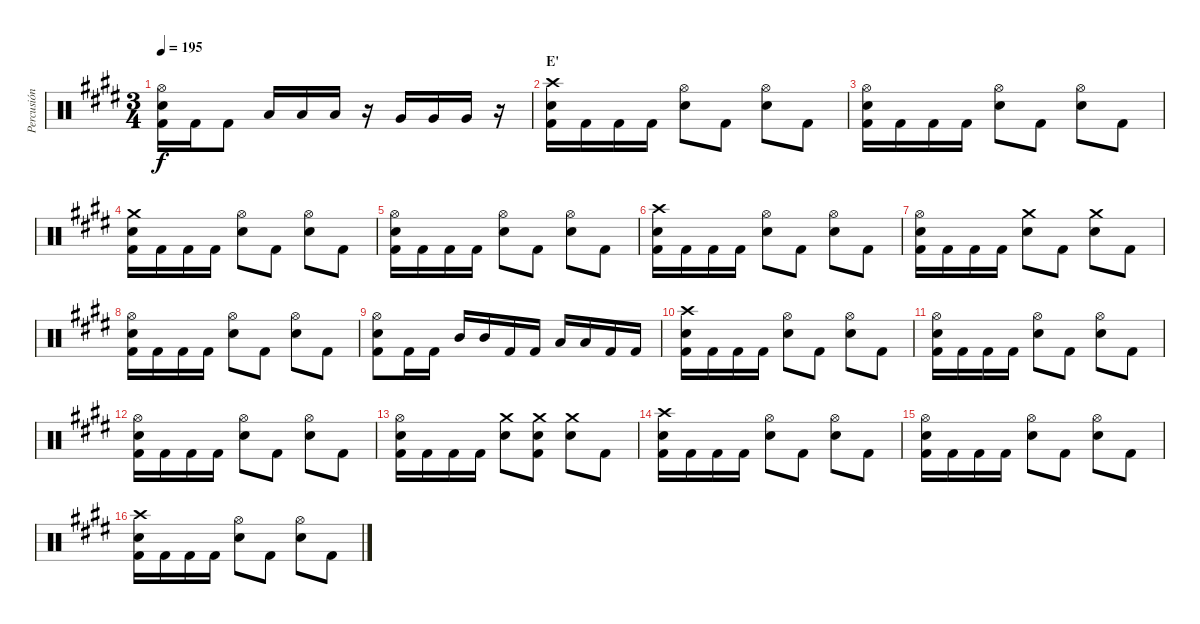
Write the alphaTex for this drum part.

\track ("Percusión" "Percusión") {instrument percussion}
\staff {score}
\articulation defaults
\ts (3 4)
\tempo 195
\clef neutral
\ks e
("Hi-Hat (open)" "Electric Snare (hit)" "Kick (hit) 2").16{dy f} "Kick (hit) 2".16 "Kick (hit) 2".8 "Low Tom (hit)".16 "Low Tom (hit)".16 "Low Tom (hit)".16 r.16 "Very Low Tom (hit)".16 "Very Low Tom (hit)".16 "Very Low Tom (hit)".16 r.16 |
\section ("" "E'")
("Crash high (hit)" "Electric Snare (hit)" "Kick (hit) 2").16 "Kick (hit) 2".16 "Kick (hit) 2".16 "Kick (hit) 2".16 ("Hi-Hat (open)" "Electric Snare (hit)").8 "Kick (hit) 2".8 ("Hi-Hat (open)" "Electric Snare (hit)").8 "Kick (hit) 2".8 |
("Hi-Hat (open)" "Electric Snare (hit)" "Kick (hit) 2").16 "Kick (hit) 2".16 "Kick (hit) 2".16 "Kick (hit) 2".16 ("Hi-Hat (open)" "Electric Snare (hit)").8 "Kick (hit) 2".8 ("Hi-Hat (open)" "Electric Snare (hit)").8 "Kick (hit) 2".8 |
("Crash medium (hit)" "Electric Snare (hit)" "Kick (hit) 2").16 "Kick (hit) 2".16 "Kick (hit) 2".16 "Kick (hit) 2".16 ("Hi-Hat (open)" "Electric Snare (hit)").8 "Kick (hit) 2".8 ("Hi-Hat (open)" "Electric Snare (hit)").8 "Kick (hit) 2".8 |
("Hi-Hat (open)" "Electric Snare (hit)" "Kick (hit) 2").16 "Kick (hit) 2".16 "Kick (hit) 2".16 "Kick (hit) 2".16 ("Hi-Hat (open)" "Electric Snare (hit)").8 "Kick (hit) 2".8 ("Hi-Hat (open)" "Electric Snare (hit)").8 "Kick (hit) 2".8 |
("Crash high (hit)" "Electric Snare (hit)" "Kick (hit) 2").16 "Kick (hit) 2".16 "Kick (hit) 2".16 "Kick (hit) 2".16 ("Hi-Hat (open)" "Electric Snare (hit)").8 "Kick (hit) 2".8 ("Hi-Hat (open)" "Electric Snare (hit)").8 "Kick (hit) 2".8 |
("Hi-Hat (open)" "Electric Snare (hit)" "Kick (hit) 2").16 "Kick (hit) 2".16 "Kick (hit) 2".16 "Kick (hit) 2".16 ("Crash medium (hit)" "Electric Snare (hit)").8 "Kick (hit) 2".8 ("Crash medium (hit)" "Electric Snare (hit)").8 "Kick (hit) 2".8 |
("Hi-Hat (open)" "Electric Snare (hit)" "Kick (hit) 2").16 "Kick (hit) 2".16 "Kick (hit) 2".16 "Kick (hit) 2".16 ("Hi-Hat (open)" "Electric Snare (hit)").8 "Kick (hit) 2".8 ("Hi-Hat (open)" "Electric Snare (hit)").8 "Kick (hit) 2".8 |
("Hi-Hat (open)" "Electric Snare (hit)" "Kick (hit) 2").8 "Kick (hit) 2".16 "Kick (hit) 2".16 "Mid Tom (hit)".16 "Mid Tom (hit)".16 "Kick (hit) 2".16 "Kick (hit) 2".16 "Low Tom (hit)".16 "Low Tom (hit)".16 "Kick (hit) 2".16 "Kick (hit) 2".16 |
("Crash high (hit)" "Electric Snare (hit)" "Kick (hit) 2").16 "Kick (hit) 2".16 "Kick (hit) 2".16 "Kick (hit) 2".16 ("Hi-Hat (open)" "Electric Snare (hit)").8 "Kick (hit) 2".8 ("Hi-Hat (open)" "Electric Snare (hit)").8 "Kick (hit) 2".8 |
("Hi-Hat (open)" "Electric Snare (hit)" "Kick (hit) 2").16 "Kick (hit) 2".16 "Kick (hit) 2".16 "Kick (hit) 2".16 ("Hi-Hat (open)" "Electric Snare (hit)").8 "Kick (hit) 2".8 ("Hi-Hat (open)" "Electric Snare (hit)").8 "Kick (hit) 2".8 |
("Hi-Hat (open)" "Electric Snare (hit)" "Kick (hit) 2").16 "Kick (hit) 2".16 "Kick (hit) 2".16 "Kick (hit) 2".16 ("Hi-Hat (open)" "Electric Snare (hit)").8 "Kick (hit) 2".8 ("Hi-Hat (open)" "Electric Snare (hit)").8 "Kick (hit) 2".8 |
("Hi-Hat (open)" "Electric Snare (hit)" "Kick (hit) 2").16 "Kick (hit) 2".16 "Kick (hit) 2".16 "Kick (hit) 2".16 ("Crash medium (hit)" "Electric Snare (hit)").8 ("Crash medium (hit)" "Electric Snare (hit)" "Kick (hit) 2").8 ("Crash medium (hit)" "Electric Snare (hit)").8 "Kick (hit) 2".8 |
("Crash high (hit)" "Electric Snare (hit)" "Kick (hit) 2").16 "Kick (hit) 2".16 "Kick (hit) 2".16 "Kick (hit) 2".16 ("Hi-Hat (open)" "Electric Snare (hit)").8 "Kick (hit) 2".8 ("Hi-Hat (open)" "Electric Snare (hit)").8 "Kick (hit) 2".8 |
("Hi-Hat (open)" "Electric Snare (hit)" "Kick (hit) 2").16 "Kick (hit) 2".16 "Kick (hit) 2".16 "Kick (hit) 2".16 ("Hi-Hat (open)" "Electric Snare (hit)").8 "Kick (hit) 2".8 ("Hi-Hat (open)" "Electric Snare (hit)").8 "Kick (hit) 2".8 |
("Crash high (hit)" "Electric Snare (hit)" "Kick (hit) 2").16 "Kick (hit) 2".16 "Kick (hit) 2".16 "Kick (hit) 2".16 ("Hi-Hat (open)" "Electric Snare (hit)").8 "Kick (hit) 2".8 ("Hi-Hat (open)" "Electric Snare (hit)").8 "Kick (hit) 2".8
